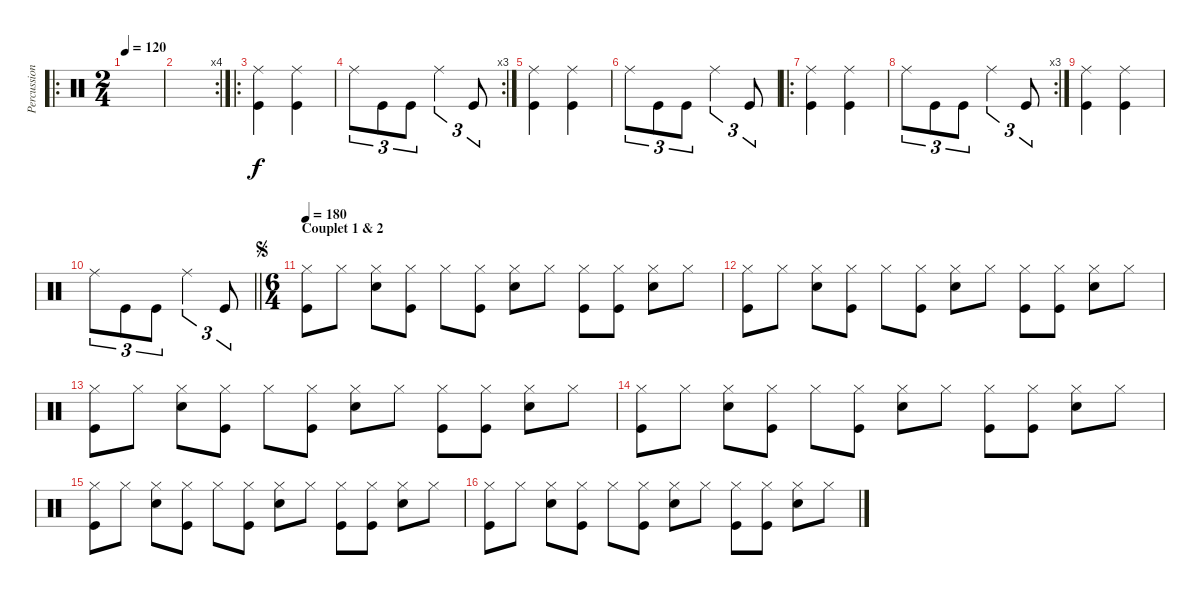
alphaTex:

\track ("Percussions" "Percussion") {instrument percussion}
\staff {score}
\articulation defaults
\ro
\ts (2 4)
\tempo 120
\clef neutral
\ks c
|
\rc 4
|
\ro
("Kick (hit)" "Ride (middle)").4 ("Kick (hit)" "Ride (middle)").4 |
\rc 3 "Ride (middle)".8{tu (3 2)} "Kick (hit)".8{tu (3 2)} "Kick (hit)".8{tu (3 2)} "Ride (middle)".4{tu (3 2)} "Kick (hit)".8{tu (3 2)}
|
("Kick (hit)" "Ride (middle)").4 ("Kick (hit)" "Ride (middle)").4 |
"Ride (middle)".8{tu (3 2)} "Kick (hit)".8{tu (3 2)} "Kick (hit)".8{tu (3 2)} "Ride (middle)".4{tu (3 2)} "Kick (hit)".8{tu (3 2)} |
\ro
("Kick (hit)" "Ride (middle)").4 ("Kick (hit)" "Ride (middle)").4 |
\rc 3 "Ride (middle)".8{tu (3 2)} "Kick (hit)".8{tu (3 2)} "Kick (hit)".8{tu (3 2)} "Ride (middle)".4{tu (3 2)} "Kick (hit)".8{tu (3 2)}
|
("Kick (hit)" "Ride (middle)").4 ("Kick (hit)" "Ride (middle)").4 |
\barLineRight lightlight "Ride (middle)".8{tu (3 2)} "Kick (hit)".8{tu (3 2)} "Kick (hit)".8{tu (3 2)} "Ride (middle)".4{tu (3 2)} "Kick (hit)".8{tu (3 2)}
|
\ts (6 4)
\section ("" "Couplet 1 & 2")
\jump segno
\tempo 180
("Kick (hit)" "Hi-Hat (closed)").8 "Hi-Hat (closed)".8 ("Snare (hit) 2" "Hi-Hat (closed)").8 ("Kick (hit)" "Hi-Hat (closed)").8 "Hi-Hat (closed)".8 ("Kick (hit)" "Hi-Hat (closed)").8 ("Snare (hit) 2" "Hi-Hat (closed)").8 "Hi-Hat (closed)".8 ("Kick (hit)" "Hi-Hat (closed)").8 ("Hi-Hat (closed)" "Kick (hit)").8 ("Snare (hit) 2" "Hi-Hat (closed)").8 "Hi-Hat (closed)".8 |
("Hi-Hat (closed)" "Kick (hit)").8 "Hi-Hat (closed)".8 ("Snare (hit) 2" "Hi-Hat (closed)").8 ("Hi-Hat (closed)" "Kick (hit)").8 "Hi-Hat (closed)".8 ("Hi-Hat (closed)" "Kick (hit)").8 ("Snare (hit) 2" "Hi-Hat (closed)").8 "Hi-Hat (closed)".8 ("Hi-Hat (closed)" "Kick (hit)").8 ("Kick (hit)" "Hi-Hat (closed)").8 ("Snare (hit) 2" "Hi-Hat (closed)").8 "Hi-Hat (closed)".8 |
("Kick (hit)" "Hi-Hat (closed)").8 "Hi-Hat (closed)".8 ("Snare (hit) 2" "Hi-Hat (closed)").8 ("Kick (hit)" "Hi-Hat (closed)").8 "Hi-Hat (closed)".8 ("Kick (hit)" "Hi-Hat (closed)").8 ("Snare (hit) 2" "Hi-Hat (closed)").8 "Hi-Hat (closed)".8 ("Kick (hit)" "Hi-Hat (closed)").8 ("Hi-Hat (closed)" "Kick (hit)").8 ("Snare (hit) 2" "Hi-Hat (closed)").8 "Hi-Hat (closed)".8 |
("Hi-Hat (closed)" "Kick (hit)").8 "Hi-Hat (closed)".8 ("Snare (hit) 2" "Hi-Hat (closed)").8 ("Hi-Hat (closed)" "Kick (hit)").8 "Hi-Hat (closed)".8 ("Hi-Hat (closed)" "Kick (hit)").8 ("Snare (hit) 2" "Hi-Hat (closed)").8 "Hi-Hat (closed)".8 ("Hi-Hat (closed)" "Kick (hit)").8 ("Kick (hit)" "Hi-Hat (closed)").8 ("Snare (hit) 2" "Hi-Hat (closed)").8 "Hi-Hat (closed)".8 |
("Hi-Hat (closed)" "Kick (hit)").8 "Hi-Hat (closed)".8 ("Snare (hit) 2" "Hi-Hat (closed)").8 ("Hi-Hat (closed)" "Kick (hit)").8 "Hi-Hat (closed)".8 ("Hi-Hat (closed)" "Kick (hit)").8 ("Snare (hit) 2" "Hi-Hat (closed)").8 "Hi-Hat (closed)".8 ("Hi-Hat (closed)" "Kick (hit)").8 ("Kick (hit)" "Hi-Hat (closed)").8 ("Snare (hit) 2" "Hi-Hat (closed)").8 "Hi-Hat (closed)".8 |
("Hi-Hat (closed)" "Kick (hit)").8 "Hi-Hat (closed)".8 ("Snare (hit) 2" "Hi-Hat (closed)").8 ("Hi-Hat (closed)" "Kick (hit)").8 "Hi-Hat (closed)".8 ("Hi-Hat (closed)" "Kick (hit)").8 ("Snare (hit) 2" "Hi-Hat (closed)").8 "Hi-Hat (closed)".8 ("Hi-Hat (closed)" "Kick (hit)").8 ("Kick (hit)" "Hi-Hat (closed)").8 ("Snare (hit) 2" "Hi-Hat (closed)").8 "Hi-Hat (closed)".8
